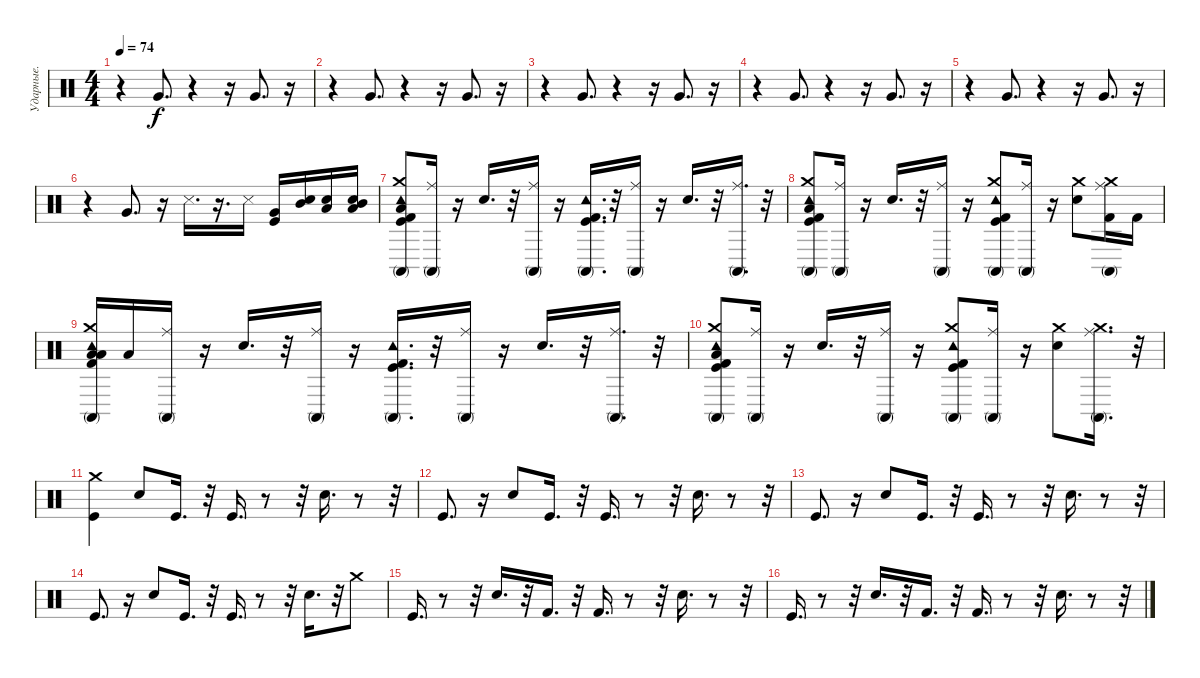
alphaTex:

\track ("Ударные." "Ударные.") {instrument percussion}
\staff {score}
\articulation defaults
\ts (4 4)
\tempo 74
\clef neutral
\ks c
r.4{dy f} "Very Low Tom (hit)".8{d} r.4 r.16 "Very Low Tom (hit)".8{d} r.16 |
r.4 "Very Low Tom (hit)".8{d} r.4 r.16 "Very Low Tom (hit)".8{d} r.16 |
r.4 "Very Low Tom (hit)".8{d} r.4 r.16 "Very Low Tom (hit)".8{d} r.16 |
r.4 "Very Low Tom (hit)".8{d} r.4 r.16 "Very Low Tom (hit)".8{d} r.16 |
r.4 "Very Low Tom (hit)".8{d} r.4 r.16 "Very Low Tom (hit)".8{d} r.16 |
r.4 "Very Low Tom (hit)".8{d} r.16 "Metronome (hit)".16{d} r.16{d} "Metronome (hit)".16 ("Kick (hit)" "Very Low Tom (hit)").16 ("Mid Tom (hit)" "Snare (hit) 2").16 ("Low Floor Tom (hit)" "Snare (hit) 2").16 ("Mid Tom (hit)" "Low Floor Tom (hit)" "Snare (hit) 2").16 |
("Crash medium (hit)" "Low Floor Tom (hit)" "Conga high (mute)" "Tambourine (hit)" "Kick (hit) 2" "Kick (hit)").8 ("Conga high (mute)" "Ride (middle)").16 r.16 "Snare (hit) 2".16{d} r.32 ("Conga high (mute)" "Ride (middle)").16 r.16 ("Conga high (mute)" "Tambourine (hit)" "Kick (hit) 2" "Kick (hit)").16{d} r.32 ("Conga high (mute)" "Ride (middle)").16 r.16 "Snare (hit) 2".16{d} r.32 ("Conga high (mute)" "Ride (middle)").16{d} r.32 |
("Crash medium (hit)" "Low Floor Tom (hit)" "Conga high (mute)" "Tambourine (hit)" "Kick (hit) 2" "Kick (hit)").8 ("Conga high (mute)" "Ride (middle)").16 r.16 "Snare (hit) 2".16{d} r.32 ("Conga high (mute)" "Ride (middle)").16 r.16 ("Crash medium (hit)" "Conga high (mute)" "Tambourine (hit)" "Kick (hit) 2" "Kick (hit)").8 ("Conga high (mute)" "Ride (middle)").16 r.16 ("Crash medium (hit)" "Snare (hit) 2").8 ("Crash medium (hit)" "Kick (hit) 2" "Conga high (mute)" "Ride (middle)").16 "Kick (hit) 2".16 |
("Low Tom (hit)" "Crash medium (hit)" "Low Floor Tom (hit)" "Conga high (mute)" "Tambourine (hit)" "Kick (hit) 2").16 "Low Floor Tom (hit)".16 ("Conga high (mute)" "Ride (middle)").16 r.16 "Snare (hit) 2".16{d} r.32 ("Conga high (mute)" "Ride (middle)").16 r.16 ("Conga high (mute)" "Tambourine (hit)" "Kick (hit) 2" "Kick (hit)").16{d} r.32 ("Conga high (mute)" "Ride (middle)").16 r.16 "Snare (hit) 2".16{d} r.32 ("Conga high (mute)" "Ride (middle)").16{d} r.32 |
("Crash medium (hit)" "Low Floor Tom (hit)" "Conga high (mute)" "Tambourine (hit)" "Kick (hit) 2" "Kick (hit)").8 ("Conga high (mute)" "Ride (middle)").16 r.16 "Snare (hit) 2".16{d} r.32 ("Conga high (mute)" "Ride (middle)").16 r.16 ("Crash medium (hit)" "Conga high (mute)" "Tambourine (hit)" "Kick (hit) 2" "Kick (hit)").8 ("Conga high (mute)" "Ride (middle)").16 r.16 ("Crash medium (hit)" "Snare (hit) 2").8 ("Crash medium (hit)" "Conga high (mute)" "Ride (middle)").16{d} r.32 |
("Kick (hit)" "Crash medium (hit)").4 "Electric Snare (hit)".8 "Kick (hit)".16{d} r.32 "Kick (hit)".16{d} r.8 r.32 "Electric Snare (hit)".16{d} r.8 r.32 |
"Kick (hit)".8{d} r.16 "Electric Snare (hit)".8 "Kick (hit)".16{d} r.32 "Kick (hit)".16{d} r.8 r.32 "Electric Snare (hit)".16{d} r.8 r.32 |
"Kick (hit)".8{d} r.16 "Electric Snare (hit)".8 "Kick (hit)".16{d} r.32 "Kick (hit)".16{d} r.8 r.32 "Electric Snare (hit)".16{d} r.8 r.32 |
"Kick (hit)".8{d} r.16 "Electric Snare (hit)".8 "Kick (hit)".16{d} r.32 "Kick (hit)".16{d} r.8 r.32 "Electric Snare (hit)".16{d} r.32 "Crash medium (hit)".8 |
"Kick (hit)".16{d} r.8 r.32 "Electric Snare (hit)".16{d} r.32 "Kick (hit) 2".16{d} r.32 "Kick (hit) 2".16{d} r.8 r.32 "Electric Snare (hit)".16{d} r.8 r.32 |
"Kick (hit)".16{d} r.8 r.32 "Electric Snare (hit)".16{d} r.32 "Kick (hit) 2".16{d} r.32 "Kick (hit) 2".16{d} r.8 r.32 "Electric Snare (hit)".16{d} r.8 r.32
